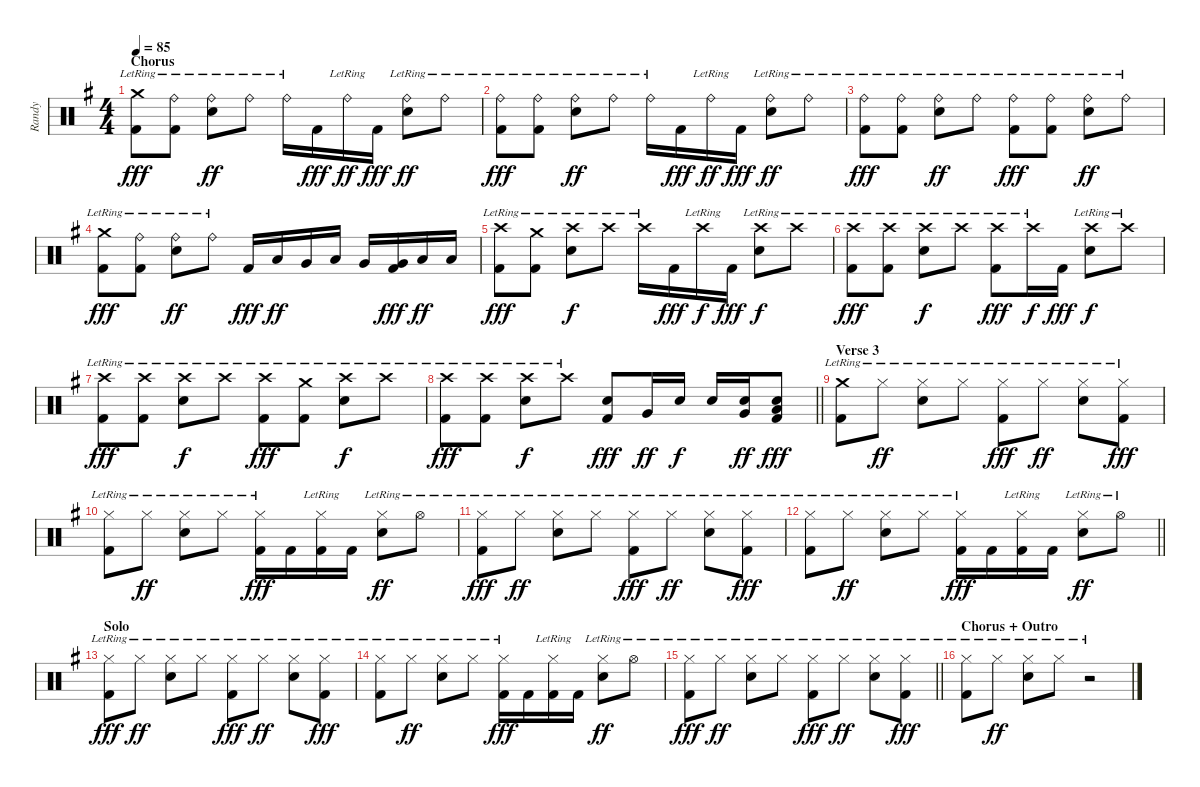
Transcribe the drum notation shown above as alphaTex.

\track ("Randy" "Randy") {instrument percussion}
\staff {score}
\articulation defaults
\ts (4 4)
\section ("" "Chorus")
\tempo 85
\clef neutral
\ks g
("Crash medium (hit)"{lr} "Kick (hit) 2").8{dy fff} ("Ride (bell)"{lr} "Kick (hit) 2").8 ("Ride (bell)"{lr} "Snare (hit) 2").8{dy ff} "Ride (bell)"{lr}.8 "Ride (bell)"{lr}.16 "Kick (hit) 2".16{dy fff} "Ride (bell)"{lr}.16{dy ff} "Kick (hit) 2".16{dy fff} ("Ride (bell)"{lr} "Snare (hit) 2").8{dy ff} "Ride (bell)"{lr}.8 |
("Ride (bell)"{lr} "Kick (hit) 2").8{dy fff} ("Ride (bell)"{lr} "Kick (hit) 2").8 ("Ride (bell)"{lr} "Snare (hit) 2").8{dy ff} "Ride (bell)"{lr}.8 "Ride (bell)"{lr}.16 "Kick (hit) 2".16{dy fff} "Ride (bell)"{lr}.16{dy ff} "Kick (hit) 2".16{dy fff} ("Ride (bell)"{lr} "Snare (hit) 2").8{dy ff} "Ride (bell)"{lr}.8 |
("Ride (bell)"{lr} "Kick (hit) 2").8{dy fff} ("Ride (bell)"{lr} "Kick (hit) 2").8 ("Ride (bell)"{lr} "Snare (hit) 2").8{dy ff} "Ride (bell)"{lr}.8 ("Ride (bell)"{lr} "Kick (hit) 2").8{dy fff} ("Ride (bell)"{lr} "Kick (hit) 2").8 ("Ride (bell)"{lr} "Snare (hit) 2").8{dy ff} "Ride (bell)"{lr}.8 |
("Crash medium (hit)"{lr} "Kick (hit) 2").8{dy fff} ("Ride (bell)"{lr} "Kick (hit) 2").8 ("Ride (bell)"{lr} "Snare (hit) 2").8{dy ff} "Ride (bell)"{lr}.8 "Kick (hit) 2".16{dy fff} "Low Tom (hit)".16{dy ff} "Very Low Tom (hit)".16 "Low Tom (hit)".16 "Very Low Tom (hit)".16 ("Very Low Tom (hit)" "Kick (hit) 2").16{dy fff} "Low Floor Tom (hit)".16{dy ff} "Low Floor Tom (hit)".16 |
("Crash high (hit)"{lr} "Kick (hit) 2").8{dy fff} ("Crash medium (hit)"{lr} "Kick (hit) 2").8 ("Crash high (hit)"{lr} "Snare (hit) 2").8{dy f} "Crash high (hit)"{lr}.8 "Crash high (hit)"{lr}.16 "Kick (hit) 2".16{dy fff} "Crash high (hit)"{lr}.16{dy f} "Kick (hit) 2".16{dy fff} ("Crash high (hit)"{lr} "Snare (hit) 2").8{dy f} "Crash high (hit)"{lr}.8 |
("Crash high (hit)"{lr} "Kick (hit) 2").8{dy fff} ("Crash high (hit)"{lr} "Kick (hit) 2").8 ("Crash high (hit)"{lr} "Snare (hit) 2").8{dy f} "Crash high (hit)"{lr}.8 ("Crash high (hit)"{lr} "Kick (hit) 2").8{dy fff} "Crash high (hit)"{lr}.16{dy f} "Kick (hit) 2".16{dy fff} ("Crash high (hit)"{lr} "Snare (hit) 2").8{dy f} "Crash high (hit)"{lr}.8 |
("Crash high (hit)"{lr} "Kick (hit) 2").8{dy fff} ("Crash high (hit)"{lr} "Kick (hit) 2").8 ("Crash high (hit)"{lr} "Snare (hit) 2").8{dy f} "Crash high (hit)"{lr}.8 ("Crash high (hit)"{lr} "Kick (hit) 2").8{dy fff} ("Crash medium (hit)"{lr} "Kick (hit) 2").8 ("Crash high (hit)"{lr} "Snare (hit) 2").8{dy f} "Crash high (hit)"{lr}.8 |
\barLineRight lightlight
("Crash high (hit)"{lr} "Kick (hit) 2").8{dy fff} ("Crash high (hit)"{lr} "Kick (hit) 2").8 ("Crash high (hit)"{lr} "Snare (hit) 2").8{dy f} "Crash high (hit)"{lr}.8 ("Snare (hit) 2" "Kick (hit) 2").8{dy fff} "Very Low Tom (hit)".16{dy ff} "Snare (hit) 2".16{dy f} "Snare (hit) 2".16 ("Very Low Tom (hit)" "Snare (hit) 2").16{dy ff} ("Low Floor Tom (hit)" "Snare (hit) 2" "Kick (hit) 2").8{dy fff} |
\section ("" "Verse 3")
("Crash medium (hit)"{lr} "Kick (hit) 2").8 "Hi-Hat (closed)"{lr}.8{dy ff} ("Hi-Hat (closed)"{lr} "Snare (hit) 2").8 "Hi-Hat (closed)"{lr}.8 ("Hi-Hat (closed)"{lr} "Kick (hit) 2").8{dy fff} "Hi-Hat (closed)"{lr}.8{dy ff} ("Hi-Hat (closed)"{lr} "Snare (hit) 2").8 ("Hi-Hat (closed)"{lr} "Kick (hit) 2").8{dy fff} |
("Hi-Hat (closed)"{lr} "Kick (hit) 2").8 "Hi-Hat (closed)"{lr}.8{dy ff} ("Hi-Hat (closed)"{lr} "Snare (hit) 2").8 "Hi-Hat (closed)"{lr}.8 ("Hi-Hat (closed)"{lr} "Kick (hit) 2").16{dy fff} "Kick (hit) 2".16 ("Hi-Hat (closed)"{lr} "Kick (hit) 2").16 "Kick (hit) 2".16 ("Hi-Hat (closed)"{lr} "Snare (hit) 2").8{dy ff} "Hi-Hat (open)"{lr}.8 |
("Hi-Hat (closed)"{lr} "Kick (hit) 2").8{dy fff} "Hi-Hat (closed)"{lr}.8{dy ff} ("Hi-Hat (closed)"{lr} "Snare (hit) 2").8 "Hi-Hat (closed)"{lr}.8 ("Hi-Hat (closed)"{lr} "Kick (hit) 2").8{dy fff} "Hi-Hat (closed)"{lr}.8{dy ff} ("Hi-Hat (closed)"{lr} "Snare (hit) 2").8 ("Hi-Hat (closed)"{lr} "Kick (hit) 2").8{dy fff} |
\barLineRight lightlight
("Hi-Hat (closed)"{lr} "Kick (hit) 2").8 "Hi-Hat (closed)"{lr}.8{dy ff} ("Hi-Hat (closed)"{lr} "Snare (hit) 2").8 "Hi-Hat (closed)"{lr}.8 ("Hi-Hat (closed)"{lr} "Kick (hit) 2").16{dy fff} "Kick (hit) 2".16 ("Hi-Hat (closed)"{lr} "Kick (hit) 2").16 "Kick (hit) 2".16 ("Hi-Hat (closed)"{lr} "Snare (hit) 2").8{dy ff} "Hi-Hat (open)"{lr}.8 |
\section ("" "Solo")
("Hi-Hat (closed)"{lr} "Kick (hit) 2").8{dy fff} "Hi-Hat (closed)"{lr}.8{dy ff} ("Hi-Hat (closed)"{lr} "Snare (hit) 2").8 "Hi-Hat (closed)"{lr}.8 ("Hi-Hat (closed)"{lr} "Kick (hit) 2").8{dy fff} "Hi-Hat (closed)"{lr}.8{dy ff} ("Hi-Hat (closed)"{lr} "Snare (hit) 2").8 ("Hi-Hat (closed)"{lr} "Kick (hit) 2").8{dy fff} |
("Hi-Hat (closed)"{lr} "Kick (hit) 2").8 "Hi-Hat (closed)"{lr}.8{dy ff} ("Hi-Hat (closed)"{lr} "Snare (hit) 2").8 "Hi-Hat (closed)"{lr}.8 ("Hi-Hat (closed)"{lr} "Kick (hit) 2").16{dy fff} "Kick (hit) 2".16 ("Hi-Hat (closed)"{lr} "Kick (hit) 2").16 "Kick (hit) 2".16 ("Hi-Hat (closed)"{lr} "Snare (hit) 2").8{dy ff} "Hi-Hat (open)"{lr}.8 |
\barLineRight lightlight
("Hi-Hat (closed)"{lr} "Kick (hit) 2").8{dy fff} "Hi-Hat (closed)"{lr}.8{dy ff} ("Hi-Hat (closed)"{lr} "Snare (hit) 2").8 "Hi-Hat (closed)"{lr}.8 ("Hi-Hat (closed)"{lr} "Kick (hit) 2").8{dy fff} "Hi-Hat (closed)"{lr}.8{dy ff} ("Hi-Hat (closed)"{lr} "Snare (hit) 2").8 ("Hi-Hat (closed)"{lr} "Kick (hit) 2").8{dy fff} |
\section ("" "Chorus + Outro")
("Hi-Hat (closed)"{lr} "Kick (hit) 2").8 "Hi-Hat (closed)"{lr}.8{dy ff} ("Hi-Hat (closed)"{lr} "Snare (hit) 2").8 "Hi-Hat (closed)"{lr}.8 r.2
